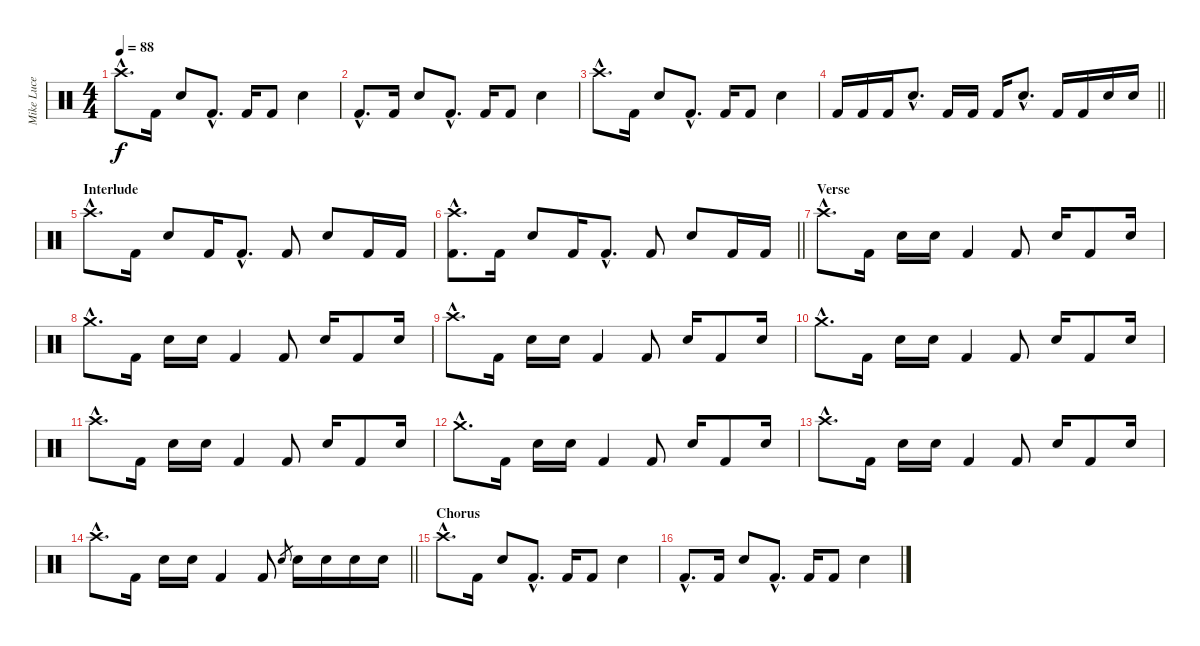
\track ("Mike Luce (Drums)" "Mike Luce ") {instrument percussion}
\staff {score}
\articulation defaults
\ts (4 4)
\tempo 88
\clef neutral
\ks c "Crash high (hit)"{hac}.8{d dy f} "Kick (hit) 2".16 "Electric Snare (hit)".8 "Kick (hit) 2"{hac}.8{d} "Kick (hit) 2".16 "Kick (hit) 2".8 "Electric Snare (hit)".4
|
"Kick (hit) 2"{hac}.8{d} "Kick (hit) 2".16 "Electric Snare (hit)".8 "Kick (hit) 2"{hac}.8{d} "Kick (hit) 2".16 "Kick (hit) 2".8 "Electric Snare (hit)".4 |
"Crash high (hit)"{hac}.8{d} "Kick (hit) 2".16 "Electric Snare (hit)".8 "Kick (hit) 2"{hac}.8{d} "Kick (hit) 2".16 "Kick (hit) 2".8 "Electric Snare (hit)".4 |
\barLineRight lightlight "Kick (hit) 2".16 "Kick (hit) 2".16 "Kick (hit) 2".16 "Electric Snare (hit)"{hac}.8{d} "Kick (hit) 2".16 "Kick (hit) 2".16 "Kick (hit) 2".16 "Electric Snare (hit)"{hac}.8{d} "Kick (hit) 2".16 "Kick (hit) 2".16 "Electric Snare (hit)".16 "Electric Snare (hit)".16
|
\section ("" "Interlude")
"Crash high (hit)"{hac}.8{d} "Kick (hit) 2".16 "Electric Snare (hit)".8 "Kick (hit) 2".16 "Kick (hit) 2"{hac}.8{d} "Kick (hit) 2".8 "Electric Snare (hit)".8 "Kick (hit) 2".16 "Kick (hit) 2".16 |
\barLineRight lightlight
("Crash high (hit)"{hac} "Kick (hit) 2"{hac}).8{d} "Kick (hit) 2".16 "Electric Snare (hit)".8 "Kick (hit) 2".16 "Kick (hit) 2"{hac}.8{d} "Kick (hit) 2".8 "Electric Snare (hit)".8 "Kick (hit) 2".16 "Kick (hit) 2".16 |
\section ("" "Verse")
"Crash high (hit)"{hac}.8{d} "Kick (hit) 2".16 "Electric Snare (hit)".16 "Electric Snare (hit)".16 "Kick (hit) 2".4 "Kick (hit) 2".8 "Electric Snare (hit)".16 "Kick (hit) 2".8 "Electric Snare (hit)".16 |
"Crash medium (hit)"{hac}.8{d} "Kick (hit) 2".16 "Electric Snare (hit)".16 "Electric Snare (hit)".16 "Kick (hit) 2".4 "Kick (hit) 2".8 "Electric Snare (hit)".16 "Kick (hit) 2".8 "Electric Snare (hit)".16 |
"Crash high (hit)"{hac}.8{d} "Kick (hit) 2".16 "Electric Snare (hit)".16 "Electric Snare (hit)".16 "Kick (hit) 2".4 "Kick (hit) 2".8 "Electric Snare (hit)".16 "Kick (hit) 2".8 "Electric Snare (hit)".16 |
"Crash medium (hit)"{hac}.8{d} "Kick (hit) 2".16 "Electric Snare (hit)".16 "Electric Snare (hit)".16 "Kick (hit) 2".4 "Kick (hit) 2".8 "Electric Snare (hit)".16 "Kick (hit) 2".8 "Electric Snare (hit)".16 |
"Crash high (hit)"{hac}.8{d} "Kick (hit) 2".16 "Electric Snare (hit)".16 "Electric Snare (hit)".16 "Kick (hit) 2".4 "Kick (hit) 2".8 "Electric Snare (hit)".16 "Kick (hit) 2".8 "Electric Snare (hit)".16 |
"Crash medium (hit)"{hac}.8{d} "Kick (hit) 2".16 "Electric Snare (hit)".16 "Electric Snare (hit)".16 "Kick (hit) 2".4 "Kick (hit) 2".8 "Electric Snare (hit)".16 "Kick (hit) 2".8 "Electric Snare (hit)".16 |
"Crash high (hit)"{hac}.8{d} "Kick (hit) 2".16 "Electric Snare (hit)".16 "Electric Snare (hit)".16 "Kick (hit) 2".4 "Kick (hit) 2".8 "Electric Snare (hit)".16 "Kick (hit) 2".8 "Electric Snare (hit)".16 |
\barLineRight lightlight "Crash high (hit)"{hac}.8{d} "Kick (hit) 2".16 "Electric Snare (hit)".16 "Electric Snare (hit)".16 "Kick (hit) 2".4 "Kick (hit) 2".8 "Electric Snare (hit)".8{gr} "Electric Snare (hit)".16 "Electric Snare (hit)".16 "Electric Snare (hit)".16 "Electric Snare (hit)".16
|
\section ("" "Chorus")
"Crash high (hit)"{hac}.8{d} "Kick (hit) 2".16 "Electric Snare (hit)".8 "Kick (hit) 2"{hac}.8{d} "Kick (hit) 2".16 "Kick (hit) 2".8 "Electric Snare (hit)".4 |
"Kick (hit) 2"{hac}.8{d} "Kick (hit) 2".16 "Electric Snare (hit)".8 "Kick (hit) 2"{hac}.8{d} "Kick (hit) 2".16 "Kick (hit) 2".8 "Electric Snare (hit)".4
